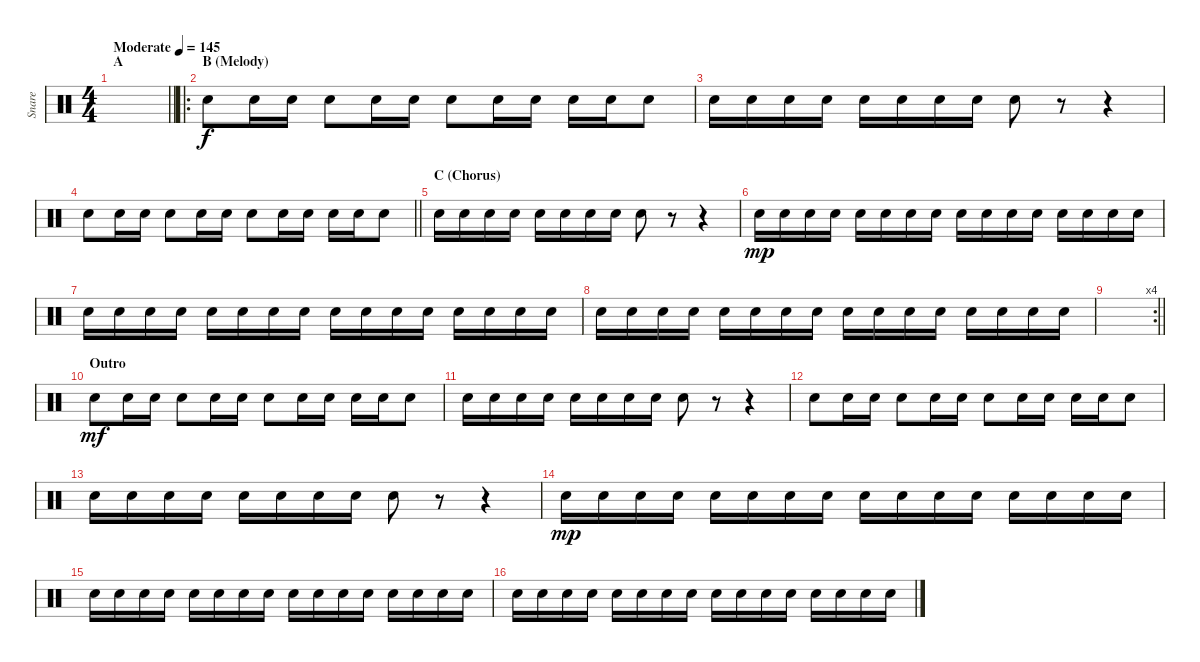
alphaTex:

\track ("Snare" "Snare") {instrument percussion}
\staff {score}
\articulation defaults
\ts (4 4)
\section ("" "A")
\tempo (145 "Moderate")
\clef neutral
\barLineRight lightlight
\ks c
|
\ro
\section ("" "B (Melody)")
"Electric Snare (hit)".8 "Electric Snare (hit)".16 "Electric Snare (hit)".16 "Electric Snare (hit)".8 "Electric Snare (hit)".16 "Electric Snare (hit)".16 "Electric Snare (hit)".8 "Electric Snare (hit)".16 "Electric Snare (hit)".16 "Electric Snare (hit)".16 "Electric Snare (hit)".16 "Electric Snare (hit)".8 |
"Electric Snare (hit)".16 "Electric Snare (hit)".16 "Electric Snare (hit)".16 "Electric Snare (hit)".16 "Electric Snare (hit)".16 "Electric Snare (hit)".16 "Electric Snare (hit)".16 "Electric Snare (hit)".16 "Electric Snare (hit)".8 r.8 r.4 |
\barLineRight lightlight "Electric Snare (hit)".8 "Electric Snare (hit)".16 "Electric Snare (hit)".16 "Electric Snare (hit)".8 "Electric Snare (hit)".16 "Electric Snare (hit)".16 "Electric Snare (hit)".8 "Electric Snare (hit)".16 "Electric Snare (hit)".16 "Electric Snare (hit)".16 "Electric Snare (hit)".16 "Electric Snare (hit)".8
|
\section ("" "C (Chorus)")
"Electric Snare (hit)".16 "Electric Snare (hit)".16 "Electric Snare (hit)".16 "Electric Snare (hit)".16 "Electric Snare (hit)".16 "Electric Snare (hit)".16 "Electric Snare (hit)".16 "Electric Snare (hit)".16 "Electric Snare (hit)".8 r.8 r.4 |
"Electric Snare (hit)".16{dy mp} "Electric Snare (hit)".16 "Electric Snare (hit)".16 "Electric Snare (hit)".16 "Electric Snare (hit)".16 "Electric Snare (hit)".16 "Electric Snare (hit)".16 "Electric Snare (hit)".16 "Electric Snare (hit)".16 "Electric Snare (hit)".16 "Electric Snare (hit)".16 "Electric Snare (hit)".16 "Electric Snare (hit)".16 "Electric Snare (hit)".16 "Electric Snare (hit)".16 "Electric Snare (hit)".16 |
"Electric Snare (hit)".16 "Electric Snare (hit)".16 "Electric Snare (hit)".16 "Electric Snare (hit)".16 "Electric Snare (hit)".16 "Electric Snare (hit)".16 "Electric Snare (hit)".16 "Electric Snare (hit)".16 "Electric Snare (hit)".16 "Electric Snare (hit)".16 "Electric Snare (hit)".16 "Electric Snare (hit)".16 "Electric Snare (hit)".16 "Electric Snare (hit)".16 "Electric Snare (hit)".16 "Electric Snare (hit)".16 |
"Electric Snare (hit)".16 "Electric Snare (hit)".16 "Electric Snare (hit)".16 "Electric Snare (hit)".16 "Electric Snare (hit)".16 "Electric Snare (hit)".16 "Electric Snare (hit)".16 "Electric Snare (hit)".16 "Electric Snare (hit)".16 "Electric Snare (hit)".16 "Electric Snare (hit)".16 "Electric Snare (hit)".16 "Electric Snare (hit)".16 "Electric Snare (hit)".16 "Electric Snare (hit)".16 "Electric Snare (hit)".16 |
\rc 4
\barLineRight lightlight
|
\section ("" "Outro")
"Electric Snare (hit)".8{dy mf} "Electric Snare (hit)".16 "Electric Snare (hit)".16 "Electric Snare (hit)".8 "Electric Snare (hit)".16 "Electric Snare (hit)".16 "Electric Snare (hit)".8 "Electric Snare (hit)".16 "Electric Snare (hit)".16 "Electric Snare (hit)".16 "Electric Snare (hit)".16 "Electric Snare (hit)".8 |
"Electric Snare (hit)".16 "Electric Snare (hit)".16 "Electric Snare (hit)".16 "Electric Snare (hit)".16 "Electric Snare (hit)".16 "Electric Snare (hit)".16 "Electric Snare (hit)".16 "Electric Snare (hit)".16 "Electric Snare (hit)".8 r.8 r.4 |
"Electric Snare (hit)".8 "Electric Snare (hit)".16 "Electric Snare (hit)".16 "Electric Snare (hit)".8 "Electric Snare (hit)".16 "Electric Snare (hit)".16 "Electric Snare (hit)".8 "Electric Snare (hit)".16 "Electric Snare (hit)".16 "Electric Snare (hit)".16 "Electric Snare (hit)".16 "Electric Snare (hit)".8 |
"Electric Snare (hit)".16 "Electric Snare (hit)".16 "Electric Snare (hit)".16 "Electric Snare (hit)".16 "Electric Snare (hit)".16 "Electric Snare (hit)".16 "Electric Snare (hit)".16 "Electric Snare (hit)".16 "Electric Snare (hit)".8 r.8 r.4 |
"Electric Snare (hit)".16{dy mp} "Electric Snare (hit)".16 "Electric Snare (hit)".16 "Electric Snare (hit)".16 "Electric Snare (hit)".16 "Electric Snare (hit)".16 "Electric Snare (hit)".16 "Electric Snare (hit)".16 "Electric Snare (hit)".16 "Electric Snare (hit)".16 "Electric Snare (hit)".16 "Electric Snare (hit)".16 "Electric Snare (hit)".16 "Electric Snare (hit)".16 "Electric Snare (hit)".16 "Electric Snare (hit)".16 |
"Electric Snare (hit)".16 "Electric Snare (hit)".16 "Electric Snare (hit)".16 "Electric Snare (hit)".16 "Electric Snare (hit)".16 "Electric Snare (hit)".16 "Electric Snare (hit)".16 "Electric Snare (hit)".16 "Electric Snare (hit)".16 "Electric Snare (hit)".16 "Electric Snare (hit)".16 "Electric Snare (hit)".16 "Electric Snare (hit)".16 "Electric Snare (hit)".16 "Electric Snare (hit)".16 "Electric Snare (hit)".16 |
"Electric Snare (hit)".16 "Electric Snare (hit)".16 "Electric Snare (hit)".16 "Electric Snare (hit)".16 "Electric Snare (hit)".16 "Electric Snare (hit)".16 "Electric Snare (hit)".16 "Electric Snare (hit)".16 "Electric Snare (hit)".16 "Electric Snare (hit)".16 "Electric Snare (hit)".16 "Electric Snare (hit)".16 "Electric Snare (hit)".16 "Electric Snare (hit)".16 "Electric Snare (hit)".16 "Electric Snare (hit)".16
